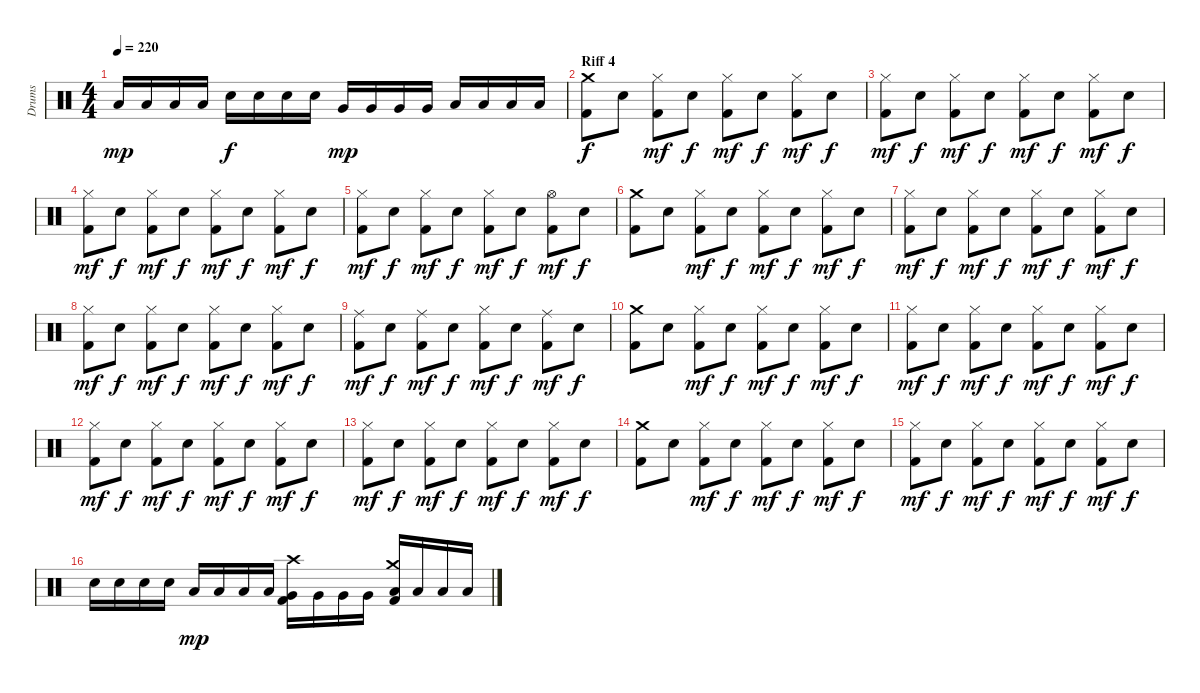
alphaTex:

\track ("Drums" "Drums") {instrument percussion}
\staff {score}
\articulation defaults
\ts (4 4)
\tempo 220
\clef neutral
\ks c "Low Tom (hit)".16{dy mp} "Low Tom (hit)".16 "Low Tom (hit)".16 "Low Tom (hit)".16 "Electric Snare (hit)".16{dy f} "Electric Snare (hit)".16 "Electric Snare (hit)".16 "Electric Snare (hit)".16 "Very Low Tom (hit)".16{dy mp} "Very Low Tom (hit)".16 "Very Low Tom (hit)".16 "Very Low Tom (hit)".16 "Low Floor Tom (hit)".16 "Low Floor Tom (hit)".16 "Low Floor Tom (hit)".16 "Low Floor Tom (hit)".16
|
\section ("" "Riff 4")
("Crash medium (hit)" "Kick (hit) 2").8{dy f} "Electric Snare (hit)".8 ("Hi-Hat (closed)" "Kick (hit) 2").8{dy mf} "Electric Snare (hit)".8{dy f} ("Hi-Hat (closed)" "Kick (hit) 2").8{dy mf} "Electric Snare (hit)".8{dy f} ("Hi-Hat (closed)" "Kick (hit) 2").8{dy mf} "Electric Snare (hit)".8{dy f} |
("Hi-Hat (closed)" "Kick (hit) 2").8{dy mf} "Electric Snare (hit)".8{dy f} ("Hi-Hat (closed)" "Kick (hit) 2").8{dy mf} "Electric Snare (hit)".8{dy f} ("Hi-Hat (closed)" "Kick (hit) 2").8{dy mf} "Electric Snare (hit)".8{dy f} ("Hi-Hat (closed)" "Kick (hit) 2").8{dy mf} "Electric Snare (hit)".8{dy f} |
("Hi-Hat (closed)" "Kick (hit) 2").8{dy mf} "Electric Snare (hit)".8{dy f} ("Hi-Hat (closed)" "Kick (hit) 2").8{dy mf} "Electric Snare (hit)".8{dy f} ("Hi-Hat (closed)" "Kick (hit) 2").8{dy mf} "Electric Snare (hit)".8{dy f} ("Hi-Hat (closed)" "Kick (hit) 2").8{dy mf} "Electric Snare (hit)".8{dy f} |
("Hi-Hat (closed)" "Kick (hit) 2").8{dy mf} "Electric Snare (hit)".8{dy f} ("Hi-Hat (closed)" "Kick (hit) 2").8{dy mf} "Electric Snare (hit)".8{dy f} ("Hi-Hat (closed)" "Kick (hit) 2").8{dy mf} "Electric Snare (hit)".8{dy f} ("Hi-Hat (open)" "Kick (hit) 2").8{dy mf} "Electric Snare (hit)".8{dy f} |
("Crash medium (hit)" "Kick (hit) 2").8 "Electric Snare (hit)".8 ("Hi-Hat (closed)" "Kick (hit) 2").8{dy mf} "Electric Snare (hit)".8{dy f} ("Hi-Hat (closed)" "Kick (hit) 2").8{dy mf} "Electric Snare (hit)".8{dy f} ("Hi-Hat (closed)" "Kick (hit) 2").8{dy mf} "Electric Snare (hit)".8{dy f} |
("Hi-Hat (closed)" "Kick (hit) 2").8{dy mf} "Electric Snare (hit)".8{dy f} ("Hi-Hat (closed)" "Kick (hit) 2").8{dy mf} "Electric Snare (hit)".8{dy f} ("Hi-Hat (closed)" "Kick (hit) 2").8{dy mf} "Electric Snare (hit)".8{dy f} ("Hi-Hat (closed)" "Kick (hit) 2").8{dy mf} "Electric Snare (hit)".8{dy f} |
("Hi-Hat (closed)" "Kick (hit) 2").8{dy mf} "Electric Snare (hit)".8{dy f} ("Hi-Hat (closed)" "Kick (hit) 2").8{dy mf} "Electric Snare (hit)".8{dy f} ("Hi-Hat (closed)" "Kick (hit) 2").8{dy mf} "Electric Snare (hit)".8{dy f} ("Hi-Hat (closed)" "Kick (hit) 2").8{dy mf} "Electric Snare (hit)".8{dy f} |
("Ride (middle)" "Kick (hit) 2").8{dy mf} "Electric Snare (hit)".8{dy f} ("Ride (middle)" "Kick (hit) 2").8{dy mf} "Electric Snare (hit)".8{dy f} ("Hi-Hat (closed)" "Kick (hit) 2").8{dy mf} "Electric Snare (hit)".8{dy f} ("Ride (middle)" "Kick (hit) 2").8{dy mf} "Electric Snare (hit)".8{dy f} |
("Crash medium (hit)" "Kick (hit) 2").8 "Electric Snare (hit)".8 ("Hi-Hat (closed)" "Kick (hit) 2").8{dy mf} "Electric Snare (hit)".8{dy f} ("Hi-Hat (closed)" "Kick (hit) 2").8{dy mf} "Electric Snare (hit)".8{dy f} ("Hi-Hat (closed)" "Kick (hit) 2").8{dy mf} "Electric Snare (hit)".8{dy f} |
("Hi-Hat (closed)" "Kick (hit) 2").8{dy mf} "Electric Snare (hit)".8{dy f} ("Hi-Hat (closed)" "Kick (hit) 2").8{dy mf} "Electric Snare (hit)".8{dy f} ("Hi-Hat (closed)" "Kick (hit) 2").8{dy mf} "Electric Snare (hit)".8{dy f} ("Hi-Hat (closed)" "Kick (hit) 2").8{dy mf} "Electric Snare (hit)".8{dy f} |
("Hi-Hat (closed)" "Kick (hit) 2").8{dy mf} "Electric Snare (hit)".8{dy f} ("Hi-Hat (closed)" "Kick (hit) 2").8{dy mf} "Electric Snare (hit)".8{dy f} ("Hi-Hat (closed)" "Kick (hit) 2").8{dy mf} "Electric Snare (hit)".8{dy f} ("Hi-Hat (closed)" "Kick (hit) 2").8{dy mf} "Electric Snare (hit)".8{dy f} |
("Hi-Hat (closed)" "Kick (hit) 2").8{dy mf} "Electric Snare (hit)".8{dy f} ("Hi-Hat (closed)" "Kick (hit) 2").8{dy mf} "Electric Snare (hit)".8{dy f} ("Hi-Hat (closed)" "Kick (hit) 2").8{dy mf} "Electric Snare (hit)".8{dy f} ("Hi-Hat (closed)" "Kick (hit) 2").8{dy mf} "Electric Snare (hit)".8{dy f} |
("Crash medium (hit)" "Kick (hit) 2").8 "Electric Snare (hit)".8 ("Hi-Hat (closed)" "Kick (hit) 2").8{dy mf} "Electric Snare (hit)".8{dy f} ("Hi-Hat (closed)" "Kick (hit) 2").8{dy mf} "Electric Snare (hit)".8{dy f} ("Hi-Hat (closed)" "Kick (hit) 2").8{dy mf} "Electric Snare (hit)".8{dy f} |
("Hi-Hat (closed)" "Kick (hit) 2").8{dy mf} "Electric Snare (hit)".8{dy f} ("Hi-Hat (closed)" "Kick (hit) 2").8{dy mf} "Electric Snare (hit)".8{dy f} ("Hi-Hat (closed)" "Kick (hit) 2").8{dy mf} "Electric Snare (hit)".8{dy f} ("Hi-Hat (closed)" "Kick (hit) 2").8{dy mf} "Electric Snare (hit)".8{dy f} |
"Electric Snare (hit)".16 "Electric Snare (hit)".16 "Electric Snare (hit)".16 "Electric Snare (hit)".16 "Low Tom (hit)".16{dy mp} "Low Tom (hit)".16 "Low Tom (hit)".16 "Low Tom (hit)".16 ("Crash high (hit)" "Very Low Tom (hit)" "Kick (hit) 2").16 "Very Low Tom (hit)".16 "Very Low Tom (hit)".16 "Very Low Tom (hit)".16 ("Crash medium (hit)" "Low Floor Tom (hit)" "Kick (hit) 2").16 "Low Floor Tom (hit)".16 "Low Floor Tom (hit)".16 "Low Floor Tom (hit)".16
